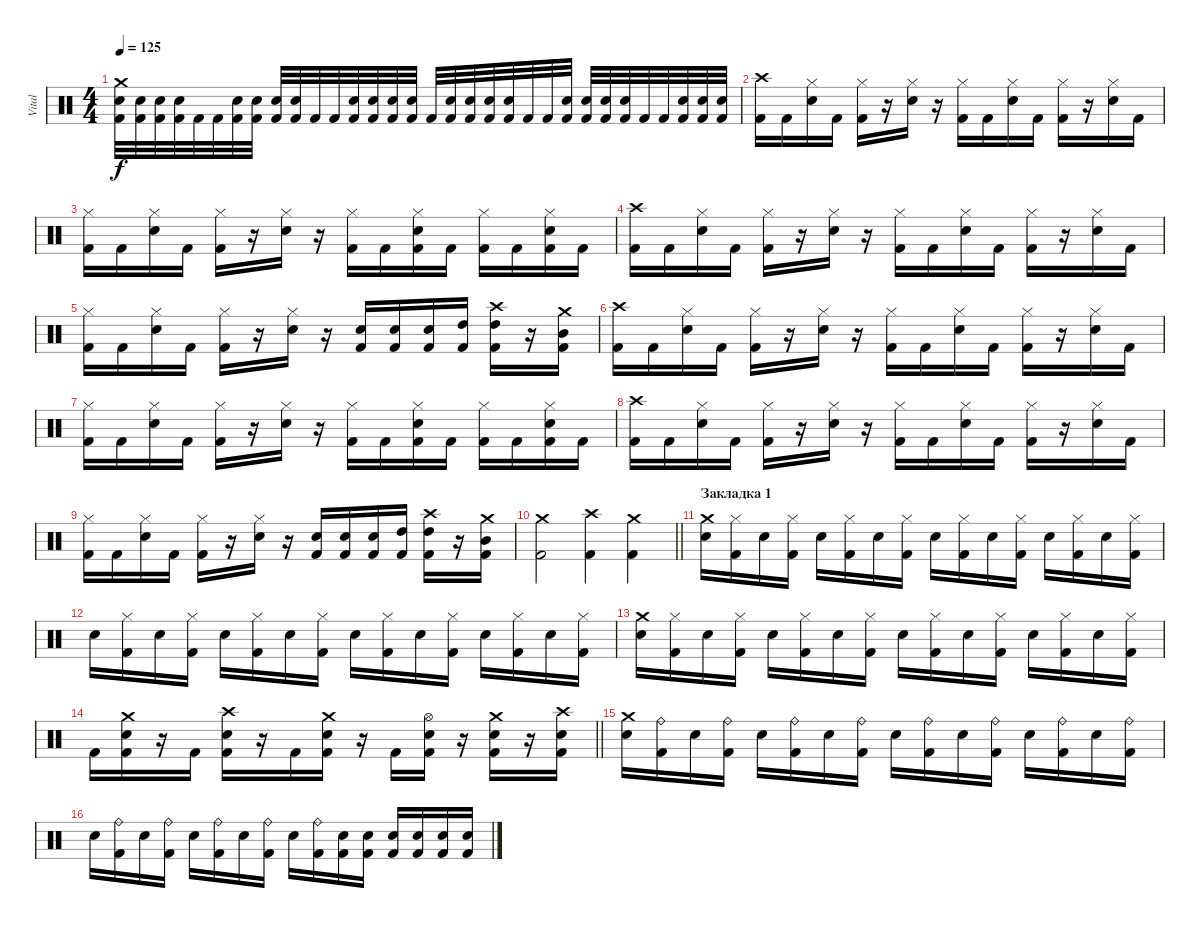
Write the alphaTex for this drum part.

\track ("Vital" "Vital") {instrument percussion}
\staff {score}
\articulation defaults
\ts (4 4)
\tempo 125
\clef neutral
\ks c
("Crash medium (hit)" "Snare (hit) 2" "Kick (hit) 2").32{dy f} ("Snare (hit) 2" "Kick (hit) 2").32 ("Snare (hit) 2" "Kick (hit) 2").32 ("Snare (hit) 2" "Kick (hit) 2").32 "Kick (hit) 2".32 "Kick (hit) 2".32 ("Snare (hit) 2" "Kick (hit) 2").32 ("Snare (hit) 2" "Kick (hit) 2").32 ("Snare (hit) 2" "Kick (hit) 2").32 ("Snare (hit) 2" "Kick (hit) 2").32 "Kick (hit) 2".32 "Kick (hit) 2".32 ("Snare (hit) 2" "Kick (hit) 2").32 ("Snare (hit) 2" "Kick (hit) 2").32 ("Snare (hit) 2" "Kick (hit) 2").32 ("Snare (hit) 2" "Kick (hit) 2").32 "Kick (hit) 2".32 ("Snare (hit) 2" "Kick (hit) 2").32 ("Snare (hit) 2" "Kick (hit) 2").32 ("Snare (hit) 2" "Kick (hit) 2").32 ("Snare (hit) 2" "Kick (hit) 2").32 "Kick (hit) 2".32 "Kick (hit) 2".32 ("Snare (hit) 2" "Kick (hit) 2").32 ("Snare (hit) 2" "Kick (hit) 2").32 ("Snare (hit) 2" "Kick (hit) 2").32 ("Snare (hit) 2" "Kick (hit) 2").32 "Kick (hit) 2".32 "Kick (hit) 2".32 ("Snare (hit) 2" "Kick (hit) 2").32 ("Snare (hit) 2" "Kick (hit) 2").32 ("Snare (hit) 2" "Kick (hit) 2").32 |
("Crash high (hit)" "Kick (hit) 2").16 "Kick (hit) 2".16 ("Hi-Hat (closed)" "Snare (hit) 2").16 "Kick (hit) 2".16 ("Hi-Hat (closed)" "Kick (hit) 2").16 r.16 ("Hi-Hat (closed)" "Snare (hit) 2").16 r.16 ("Hi-Hat (closed)" "Kick (hit) 2").16 "Kick (hit) 2".16 ("Hi-Hat (closed)" "Snare (hit) 2").16 "Kick (hit) 2".16 ("Hi-Hat (closed)" "Kick (hit) 2").16 r.16 ("Hi-Hat (closed)" "Snare (hit) 2").16 "Kick (hit) 2".16 |
("Hi-Hat (closed)" "Kick (hit) 2").16 "Kick (hit) 2".16 ("Hi-Hat (closed)" "Snare (hit) 2").16 "Kick (hit) 2".16 ("Hi-Hat (closed)" "Kick (hit) 2").16 r.16 ("Hi-Hat (closed)" "Snare (hit) 2").16 r.16 ("Hi-Hat (closed)" "Kick (hit) 2").16 "Kick (hit) 2".16 ("Hi-Hat (closed)" "Snare (hit) 2" "Kick (hit) 2").16 "Kick (hit) 2".16 ("Hi-Hat (closed)" "Kick (hit) 2").16 "Kick (hit) 2".16 ("Hi-Hat (closed)" "Snare (hit) 2" "Kick (hit) 2").16 "Kick (hit) 2".16 |
("Crash high (hit)" "Kick (hit) 2").16 "Kick (hit) 2".16 ("Hi-Hat (closed)" "Snare (hit) 2").16 "Kick (hit) 2".16 ("Hi-Hat (closed)" "Kick (hit) 2").16 r.16 ("Hi-Hat (closed)" "Snare (hit) 2").16 r.16 ("Hi-Hat (closed)" "Kick (hit) 2").16 "Kick (hit) 2".16 ("Hi-Hat (closed)" "Snare (hit) 2").16 "Kick (hit) 2".16 ("Hi-Hat (closed)" "Kick (hit) 2").16 r.16 ("Hi-Hat (closed)" "Snare (hit) 2").16 "Kick (hit) 2".16 |
("Hi-Hat (closed)" "Kick (hit) 2").16 "Kick (hit) 2".16 ("Hi-Hat (closed)" "Snare (hit) 2").16 "Kick (hit) 2".16 ("Hi-Hat (closed)" "Kick (hit) 2").16 r.16 ("Hi-Hat (closed)" "Snare (hit) 2").16 r.16 ("Snare (hit) 2" "Kick (hit) 2").16 ("Snare (hit) 2" "Kick (hit) 2").16 ("Snare (hit) 2" "Kick (hit) 2").16 ("High Tom (hit)" "Kick (hit) 2").16 ("Crash high (hit)" "High Tom (hit)" "Kick (hit) 2").16 r.16 ("Crash medium (hit)" "Mid Tom (hit)" "Kick (hit) 2").16 |
("Crash high (hit)" "Kick (hit) 2").16 "Kick (hit) 2".16 ("Hi-Hat (closed)" "Snare (hit) 2").16 "Kick (hit) 2".16 ("Hi-Hat (closed)" "Kick (hit) 2").16 r.16 ("Hi-Hat (closed)" "Snare (hit) 2").16 r.16 ("Hi-Hat (closed)" "Kick (hit) 2").16 "Kick (hit) 2".16 ("Hi-Hat (closed)" "Snare (hit) 2").16 "Kick (hit) 2".16 ("Hi-Hat (closed)" "Kick (hit) 2").16 r.16 ("Hi-Hat (closed)" "Snare (hit) 2").16 "Kick (hit) 2".16 |
("Hi-Hat (closed)" "Kick (hit) 2").16 "Kick (hit) 2".16 ("Hi-Hat (closed)" "Snare (hit) 2").16 "Kick (hit) 2".16 ("Hi-Hat (closed)" "Kick (hit) 2").16 r.16 ("Hi-Hat (closed)" "Snare (hit) 2").16 r.16 ("Hi-Hat (closed)" "Kick (hit) 2").16 "Kick (hit) 2".16 ("Hi-Hat (closed)" "Snare (hit) 2" "Kick (hit) 2").16 "Kick (hit) 2".16 ("Hi-Hat (closed)" "Kick (hit) 2").16 "Kick (hit) 2".16 ("Hi-Hat (closed)" "Snare (hit) 2" "Kick (hit) 2").16 "Kick (hit) 2".16 |
("Crash high (hit)" "Kick (hit) 2").16 "Kick (hit) 2".16 ("Hi-Hat (closed)" "Snare (hit) 2").16 "Kick (hit) 2".16 ("Hi-Hat (closed)" "Kick (hit) 2").16 r.16 ("Hi-Hat (closed)" "Snare (hit) 2").16 r.16 ("Hi-Hat (closed)" "Kick (hit) 2").16 "Kick (hit) 2".16 ("Hi-Hat (closed)" "Snare (hit) 2").16 "Kick (hit) 2".16 ("Hi-Hat (closed)" "Kick (hit) 2").16 r.16 ("Hi-Hat (closed)" "Snare (hit) 2").16 "Kick (hit) 2".16 |
("Hi-Hat (closed)" "Kick (hit) 2").16 "Kick (hit) 2".16 ("Hi-Hat (closed)" "Snare (hit) 2").16 "Kick (hit) 2".16 ("Hi-Hat (closed)" "Kick (hit) 2").16 r.16 ("Hi-Hat (closed)" "Snare (hit) 2").16 r.16 ("Snare (hit) 2" "Kick (hit) 2").16 ("Snare (hit) 2" "Kick (hit) 2").16 ("Snare (hit) 2" "Kick (hit) 2").16 ("High Tom (hit)" "Kick (hit) 2").16 ("Crash high (hit)" "High Tom (hit)" "Kick (hit) 2").16 r.16 ("Crash medium (hit)" "Mid Tom (hit)" "Kick (hit) 2").16 |
\barLineRight lightlight
("Crash medium (hit)" "Kick (hit) 2").2 ("Crash high (hit)" "Kick (hit) 2").4 ("Crash medium (hit)" "Kick (hit) 2").4 |
\section ("" "Закладка 1")
("Crash medium (hit)" "Snare (hit) 2").16 ("Hi-Hat (closed)" "Kick (hit) 2").16 "Snare (hit) 2".16 ("Hi-Hat (closed)" "Kick (hit) 2").16 "Snare (hit) 2".16 ("Hi-Hat (closed)" "Kick (hit) 2").16 "Snare (hit) 2".16 ("Hi-Hat (closed)" "Kick (hit) 2").16 "Snare (hit) 2".16 ("Hi-Hat (closed)" "Kick (hit) 2").16 "Snare (hit) 2".16 ("Hi-Hat (closed)" "Kick (hit) 2").16 "Snare (hit) 2".16 ("Hi-Hat (closed)" "Kick (hit) 2").16 "Snare (hit) 2".16 ("Hi-Hat (closed)" "Kick (hit) 2").16 |
"Snare (hit) 2".16 ("Hi-Hat (closed)" "Kick (hit) 2").16 "Snare (hit) 2".16 ("Hi-Hat (closed)" "Kick (hit) 2").16 "Snare (hit) 2".16 ("Hi-Hat (closed)" "Kick (hit) 2").16 "Snare (hit) 2".16 ("Hi-Hat (closed)" "Kick (hit) 2").16 "Snare (hit) 2".16 ("Hi-Hat (closed)" "Kick (hit) 2").16 "Snare (hit) 2".16 ("Hi-Hat (closed)" "Kick (hit) 2").16 "Snare (hit) 2".16 ("Hi-Hat (closed)" "Kick (hit) 2").16 "Snare (hit) 2".16 ("Hi-Hat (closed)" "Kick (hit) 2").16 |
("Crash medium (hit)" "Snare (hit) 2").16 ("Hi-Hat (closed)" "Kick (hit) 2").16 "Snare (hit) 2".16 ("Hi-Hat (closed)" "Kick (hit) 2").16 "Snare (hit) 2".16 ("Hi-Hat (closed)" "Kick (hit) 2").16 "Snare (hit) 2".16 ("Hi-Hat (closed)" "Kick (hit) 2").16 "Snare (hit) 2".16 ("Hi-Hat (closed)" "Kick (hit) 2").16 "Snare (hit) 2".16 ("Hi-Hat (closed)" "Kick (hit) 2").16 "Snare (hit) 2".16 ("Hi-Hat (closed)" "Kick (hit) 2").16 "Snare (hit) 2".16 ("Hi-Hat (closed)" "Kick (hit) 2").16 |
\barLineRight lightlight "Kick (hit) 2".16
("Crash medium (hit)" "Snare (hit) 2" "Kick (hit) 2").16 r.16 "Kick (hit) 2".16 ("Crash high (hit)" "Snare (hit) 2" "Kick (hit) 2").16 r.16 "Kick (hit) 2".16 ("Crash medium (hit)" "Snare (hit) 2" "Kick (hit) 2").16 r.16 "Kick (hit) 2".16 ("Hi-Hat (open)" "Snare (hit) 2" "Kick (hit) 2").16 r.16 ("Crash medium (hit)" "Snare (hit) 2" "Kick (hit) 2").16 r.16 ("Crash high (hit)" "Snare (hit) 2" "Kick (hit) 2").16 |
("Crash medium (hit)" "Snare (hit) 2").16 ("Ride (bell)" "Kick (hit) 2").16 "Snare (hit) 2".16 ("Ride (bell)" "Kick (hit) 2").16 "Snare (hit) 2".16 ("Ride (bell)" "Kick (hit) 2").16 "Snare (hit) 2".16 ("Ride (bell)" "Kick (hit) 2").16 "Snare (hit) 2".16 ("Ride (bell)" "Kick (hit) 2").16 "Snare (hit) 2".16 ("Ride (bell)" "Kick (hit) 2").16 "Snare (hit) 2".16 ("Ride (bell)" "Kick (hit) 2").16 "Snare (hit) 2".16 ("Ride (bell)" "Kick (hit) 2").16 |
"Snare (hit) 2".16 ("Ride (bell)" "Kick (hit) 2").16 "Snare (hit) 2".16 ("Ride (bell)" "Kick (hit) 2").16 "Snare (hit) 2".16 ("Ride (bell)" "Kick (hit) 2").16 "Snare (hit) 2".16 ("Ride (bell)" "Kick (hit) 2").16 "Snare (hit) 2".16 ("Ride (bell)" "Kick (hit) 2").16 ("Snare (hit) 2" "Kick (hit) 2").16 ("Snare (hit) 2" "Kick (hit) 2").16 ("Snare (hit) 2" "Kick (hit) 2").16 ("Snare (hit) 2" "Kick (hit) 2").16 ("Snare (hit) 2" "Kick (hit) 2").16 ("Snare (hit) 2" "Kick (hit) 2").16
